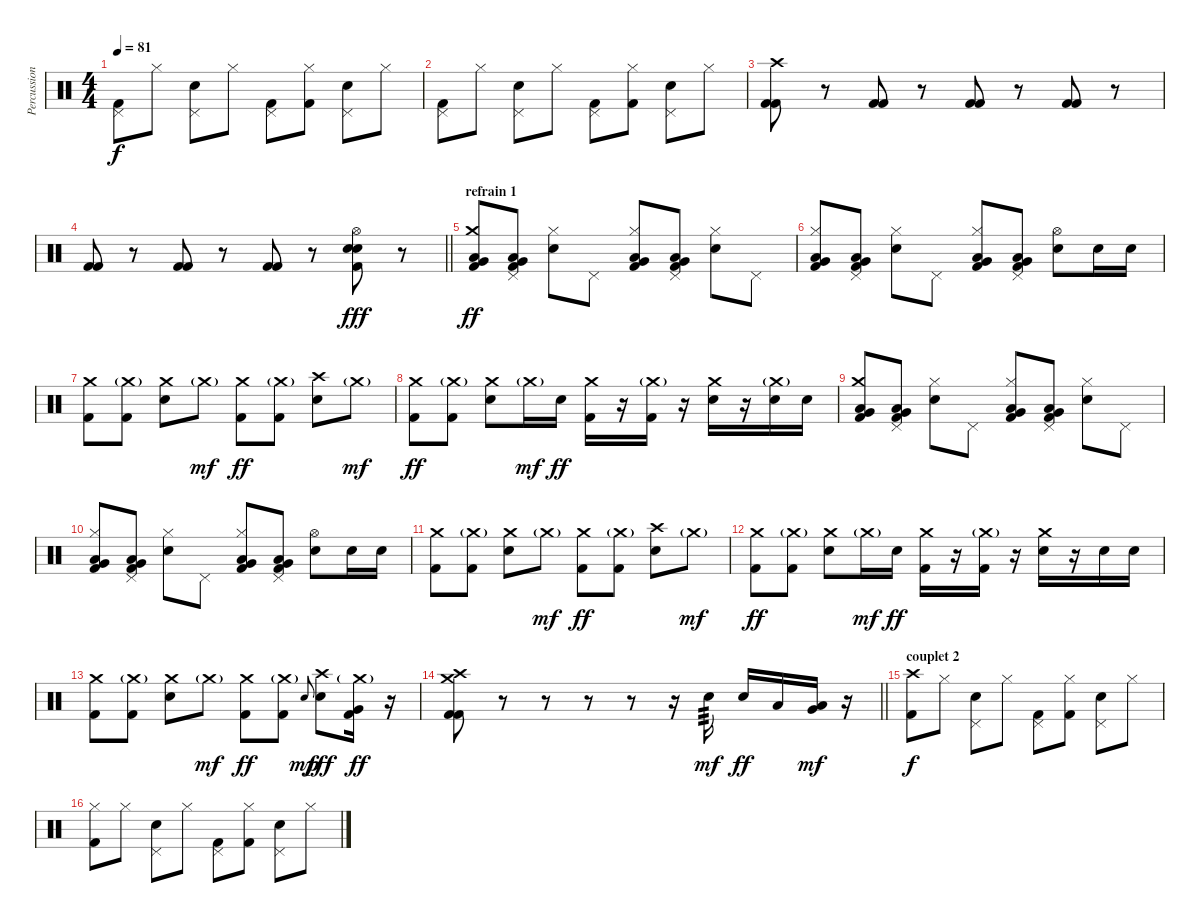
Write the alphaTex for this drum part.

\track ("Percussions" "Percussion") {instrument percussion bank 16}
\staff {score}
\articulation defaults
\ts (4 4)
\tempo 81
\clef neutral
\ks c
("Pedal Hi-Hat (hit)" "Kick (hit) 2").8{dy f} "Hi-Hat (closed)".8 ("Pedal Hi-Hat (hit)" "Electric Snare (hit)").8 "Hi-Hat (closed)".8 ("Pedal Hi-Hat (hit)" "Kick (hit) 2").8 ("Hi-Hat (closed)" "Kick (hit) 2").8 ("Pedal Hi-Hat (hit)" "Electric Snare (hit)").8 "Hi-Hat (closed)".8 |
("Pedal Hi-Hat (hit)" "Kick (hit) 2").8 "Hi-Hat (closed)".8 ("Pedal Hi-Hat (hit)" "Electric Snare (hit)").8 "Hi-Hat (closed)".8 ("Pedal Hi-Hat (hit)" "Kick (hit) 2").8 ("Hi-Hat (closed)" "Kick (hit) 2").8 ("Pedal Hi-Hat (hit)" "Electric Snare (hit)").8 "Hi-Hat (closed)".8 |
("Crash high (hit)" "Kick (hit) 2" "Kick (hit) 2").8 r.8 ("Kick (hit) 2" "Kick (hit) 2").8 r.8 ("Kick (hit) 2" "Kick (hit) 2").8 r.8 ("Kick (hit) 2" "Kick (hit) 2").8 r.8 |
\barLineRight lightlight
("Kick (hit) 2" "Kick (hit) 2").8 r.8 ("Kick (hit) 2" "Kick (hit) 2").8 r.8 ("Kick (hit) 2" "Kick (hit) 2").8 r.8 ("Hi-Hat (open)" "Electric Snare (hit)" "Electric Snare (hit)" "Kick (hit) 2").8{dy fff} r.8 |
\section ("" "refrain 1")
("Crash medium (hit)" "Low Tom (hit)" "Very Low Tom (hit)" "Kick (hit) 2").8{dy ff} ("Pedal Hi-Hat (hit)" "Low Tom (hit)" "Very Low Tom (hit)" "Kick (hit) 2").8 ("Hi-Hat (closed)" "Electric Snare (hit)").8 "Pedal Hi-Hat (hit)".8 ("Hi-Hat (closed)" "Low Tom (hit)" "Very Low Tom (hit)" "Kick (hit) 2").8 ("Pedal Hi-Hat (hit)" "Low Tom (hit)" "Very Low Tom (hit)" "Kick (hit) 2").8 ("Hi-Hat (closed)" "Electric Snare (hit)").8 "Pedal Hi-Hat (hit)".8 |
("Hi-Hat (closed)" "Low Tom (hit)" "Very Low Tom (hit)" "Kick (hit) 2").8 ("Pedal Hi-Hat (hit)" "Low Tom (hit)" "Very Low Tom (hit)" "Kick (hit) 2").8 ("Hi-Hat (closed)" "Electric Snare (hit)").8 "Pedal Hi-Hat (hit)".8 ("Hi-Hat (closed)" "Low Tom (hit)" "Very Low Tom (hit)" "Kick (hit) 2").8 ("Pedal Hi-Hat (hit)" "Low Tom (hit)" "Very Low Tom (hit)" "Kick (hit) 2").8 ("Hi-Hat (open)" "Electric Snare (hit)").8 "Electric Snare (hit)".16 "Electric Snare (hit)".16 |
("Crash medium (hit)" "Kick (hit) 2").8 ("Crash medium (hit)"{g} "Kick (hit) 2").8 ("Crash medium (hit)" "Electric Snare (hit)").8 "Crash medium (hit)"{g}.8{dy mf} ("Crash medium (hit)" "Kick (hit) 2").8{dy ff} ("Crash medium (hit)"{g} "Kick (hit) 2").8 ("Crash high (hit)" "Electric Snare (hit)").8 "Crash medium (hit)"{g}.8{dy mf} |
("Crash medium (hit)" "Kick (hit) 2").8{dy ff} ("Crash medium (hit)"{g} "Kick (hit) 2").8 ("Crash medium (hit)" "Electric Snare (hit)").8 "Crash medium (hit)"{g}.16{dy mf} "Electric Snare (hit)".16{dy ff} ("Crash medium (hit)" "Kick (hit) 2").16 r.16 ("Crash medium (hit)"{g} "Kick (hit) 2").16 r.16 ("Crash medium (hit)" "Electric Snare (hit)").16 r.16 ("Crash medium (hit)"{g} "Electric Snare (hit)").16 "Electric Snare (hit)".16 |
("Crash medium (hit)" "Low Tom (hit)" "Very Low Tom (hit)" "Kick (hit) 2").8 ("Pedal Hi-Hat (hit)" "Low Tom (hit)" "Very Low Tom (hit)" "Kick (hit) 2").8 ("Hi-Hat (closed)" "Electric Snare (hit)").8 "Pedal Hi-Hat (hit)".8 ("Hi-Hat (closed)" "Low Tom (hit)" "Very Low Tom (hit)" "Kick (hit) 2").8 ("Pedal Hi-Hat (hit)" "Low Tom (hit)" "Very Low Tom (hit)" "Kick (hit) 2").8 ("Hi-Hat (closed)" "Electric Snare (hit)").8 "Pedal Hi-Hat (hit)".8 |
("Hi-Hat (closed)" "Low Tom (hit)" "Very Low Tom (hit)" "Kick (hit) 2").8 ("Pedal Hi-Hat (hit)" "Low Tom (hit)" "Very Low Tom (hit)" "Kick (hit) 2").8 ("Hi-Hat (closed)" "Electric Snare (hit)").8 "Pedal Hi-Hat (hit)".8 ("Hi-Hat (closed)" "Low Tom (hit)" "Very Low Tom (hit)" "Kick (hit) 2").8 ("Pedal Hi-Hat (hit)" "Low Tom (hit)" "Very Low Tom (hit)" "Kick (hit) 2").8 ("Hi-Hat (open)" "Electric Snare (hit)").8 "Electric Snare (hit)".16 "Electric Snare (hit)".16 |
("Crash medium (hit)" "Kick (hit) 2").8 ("Crash medium (hit)"{g} "Kick (hit) 2").8 ("Crash medium (hit)" "Electric Snare (hit)").8 "Crash medium (hit)"{g}.8{dy mf} ("Crash medium (hit)" "Kick (hit) 2").8{dy ff} ("Crash medium (hit)"{g} "Kick (hit) 2").8 ("Crash high (hit)" "Electric Snare (hit)").8 "Crash medium (hit)"{g}.8{dy mf} |
("Crash medium (hit)" "Kick (hit) 2").8{dy ff} ("Crash medium (hit)"{g} "Kick (hit) 2").8 ("Crash medium (hit)" "Electric Snare (hit)").8 "Crash medium (hit)"{g}.16{dy mf} "Electric Snare (hit)".16{dy ff} ("Crash medium (hit)" "Kick (hit) 2").16 r.16 ("Crash medium (hit)"{g} "Kick (hit) 2").16 r.16 ("Crash medium (hit)" "Electric Snare (hit)").16 r.16 "Electric Snare (hit)".16 "Electric Snare (hit)".16 |
("Crash medium (hit)" "Kick (hit) 2").8 ("Crash medium (hit)"{g} "Kick (hit) 2").8 ("Crash medium (hit)" "Electric Snare (hit)").8 "Crash medium (hit)"{g}.8{dy mf} ("Crash medium (hit)" "Kick (hit) 2").8{dy ff} ("Crash medium (hit)"{g} "Kick (hit) 2").8 "Electric Snare (hit)".8{gr onbeat dy mp} ("Crash high (hit)" "Electric Snare (hit)").8{dy fff} ("Crash medium (hit)"{g} "Very Low Tom (hit)" "Kick (hit) 2").16{dy ff} r.16 |
\barLineRight lightlight
("Crash high (hit)" "Crash medium (hit)" "Kick (hit) 2" "Kick (hit) 2").8 r.8 r.8 r.8 r.8 r.16 "Electric Snare (hit)".16{tp 3 dy mf} "Electric Snare (hit)".16{dy ff} "Low Tom (hit)".16 ("Very Low Tom (hit)" "Low Floor Tom (hit)").16{dy mf} r.16 |
\section ("" "couplet 2")
("Crash high (hit)" "Kick (hit) 2").8{dy f} "Hi-Hat (closed)".8 ("Pedal Hi-Hat (hit)" "Electric Snare (hit)").8 "Hi-Hat (closed)".8 ("Pedal Hi-Hat (hit)" "Kick (hit) 2").8 ("Hi-Hat (closed)" "Kick (hit) 2").8 ("Pedal Hi-Hat (hit)" "Electric Snare (hit)").8 "Hi-Hat (closed)".8 |
("Hi-Hat (closed)" "Kick (hit) 2").8 "Hi-Hat (closed)".8 ("Pedal Hi-Hat (hit)" "Electric Snare (hit)").8 "Hi-Hat (closed)".8 ("Pedal Hi-Hat (hit)" "Kick (hit) 2").8 ("Hi-Hat (closed)" "Kick (hit) 2").8 ("Pedal Hi-Hat (hit)" "Electric Snare (hit)").8 "Hi-Hat (closed)".8
